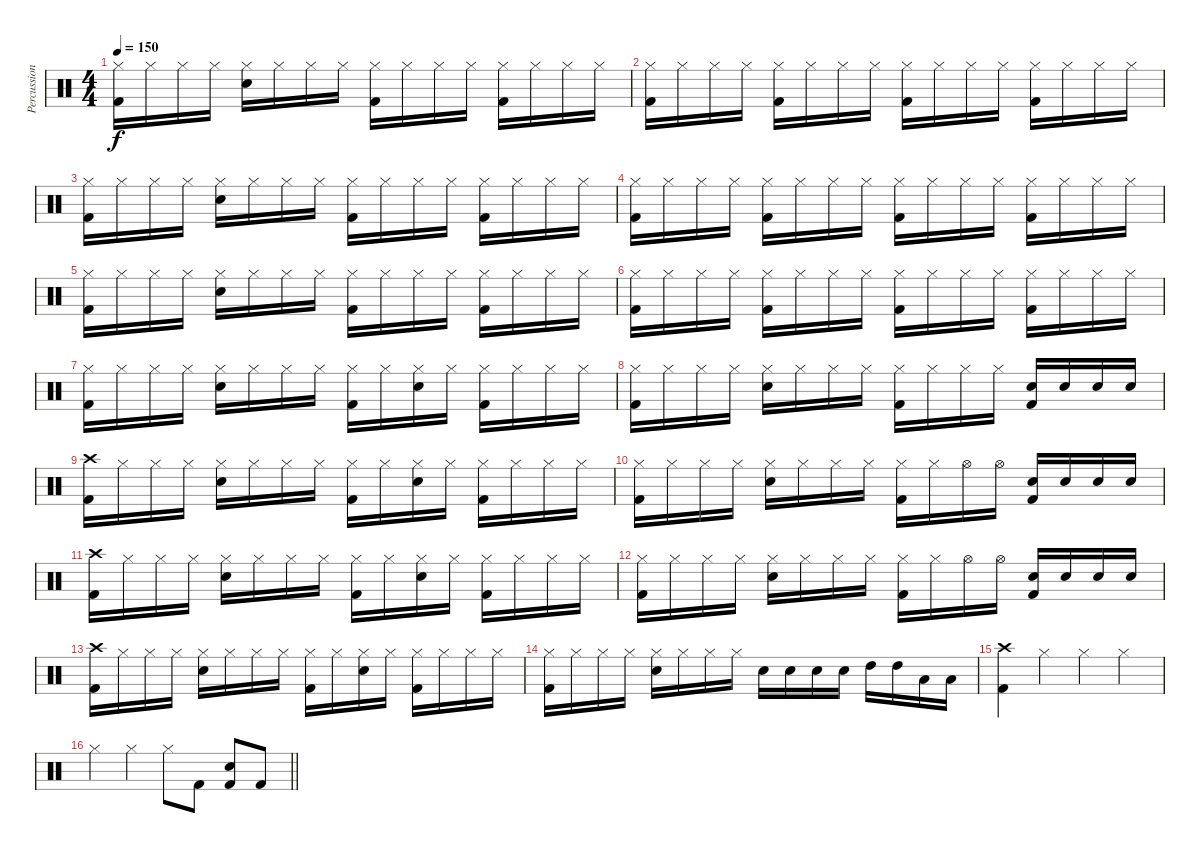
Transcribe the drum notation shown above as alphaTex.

\track ("Percussion" "Percussion") {instrument percussion}
\staff {score}
\articulation defaults
\ts (4 4)
\tempo 150
\clef neutral
\ks c
("Hi-Hat (closed)" "Kick (hit) 2").16{dy f} "Hi-Hat (closed)".16 "Hi-Hat (closed)".16 "Hi-Hat (closed)".16 ("Hi-Hat (closed)" "Snare (hit) 2").16 "Hi-Hat (closed)".16 "Hi-Hat (closed)".16 "Hi-Hat (closed)".16 ("Hi-Hat (closed)" "Kick (hit) 2").16 "Hi-Hat (closed)".16 "Hi-Hat (closed)".16 "Hi-Hat (closed)".16 ("Hi-Hat (closed)" "Kick (hit) 2").16 "Hi-Hat (closed)".16 "Hi-Hat (closed)".16 "Hi-Hat (closed)".16 |
("Hi-Hat (closed)" "Kick (hit) 2").16 "Hi-Hat (closed)".16 "Hi-Hat (closed)".16 "Hi-Hat (closed)".16 ("Hi-Hat (closed)" "Kick (hit) 2").16 "Hi-Hat (closed)".16 "Hi-Hat (closed)".16 "Hi-Hat (closed)".16 ("Hi-Hat (closed)" "Kick (hit) 2").16 "Hi-Hat (closed)".16 "Hi-Hat (closed)".16 "Hi-Hat (closed)".16 ("Hi-Hat (closed)" "Kick (hit) 2").16 "Hi-Hat (closed)".16 "Hi-Hat (closed)".16 "Hi-Hat (closed)".16 |
("Hi-Hat (closed)" "Kick (hit) 2").16 "Hi-Hat (closed)".16 "Hi-Hat (closed)".16 "Hi-Hat (closed)".16 ("Hi-Hat (closed)" "Snare (hit) 2").16 "Hi-Hat (closed)".16 "Hi-Hat (closed)".16 "Hi-Hat (closed)".16 ("Hi-Hat (closed)" "Kick (hit) 2").16 "Hi-Hat (closed)".16 "Hi-Hat (closed)".16 "Hi-Hat (closed)".16 ("Hi-Hat (closed)" "Kick (hit) 2").16 "Hi-Hat (closed)".16 "Hi-Hat (closed)".16 "Hi-Hat (closed)".16 |
("Hi-Hat (closed)" "Kick (hit) 2").16 "Hi-Hat (closed)".16 "Hi-Hat (closed)".16 "Hi-Hat (closed)".16 ("Hi-Hat (closed)" "Kick (hit) 2").16 "Hi-Hat (closed)".16 "Hi-Hat (closed)".16 "Hi-Hat (closed)".16 ("Hi-Hat (closed)" "Kick (hit) 2").16 "Hi-Hat (closed)".16 "Hi-Hat (closed)".16 "Hi-Hat (closed)".16 ("Hi-Hat (closed)" "Kick (hit) 2").16 "Hi-Hat (closed)".16 "Hi-Hat (closed)".16 "Hi-Hat (closed)".16 |
("Hi-Hat (closed)" "Kick (hit) 2").16 "Hi-Hat (closed)".16 "Hi-Hat (closed)".16 "Hi-Hat (closed)".16 ("Hi-Hat (closed)" "Snare (hit) 2").16 "Hi-Hat (closed)".16 "Hi-Hat (closed)".16 "Hi-Hat (closed)".16 ("Hi-Hat (closed)" "Kick (hit) 2").16 "Hi-Hat (closed)".16 "Hi-Hat (closed)".16 "Hi-Hat (closed)".16 ("Hi-Hat (closed)" "Kick (hit) 2").16 "Hi-Hat (closed)".16 "Hi-Hat (closed)".16 "Hi-Hat (closed)".16 |
("Hi-Hat (closed)" "Kick (hit) 2").16 "Hi-Hat (closed)".16 "Hi-Hat (closed)".16 "Hi-Hat (closed)".16 ("Hi-Hat (closed)" "Kick (hit) 2").16 "Hi-Hat (closed)".16 "Hi-Hat (closed)".16 "Hi-Hat (closed)".16 ("Hi-Hat (closed)" "Kick (hit) 2").16 "Hi-Hat (closed)".16 "Hi-Hat (closed)".16 "Hi-Hat (closed)".16 ("Hi-Hat (closed)" "Kick (hit) 2").16 "Hi-Hat (closed)".16 "Hi-Hat (closed)".16 "Hi-Hat (closed)".16 |
("Hi-Hat (closed)" "Kick (hit) 2").16 "Hi-Hat (closed)".16 "Hi-Hat (closed)".16 "Hi-Hat (closed)".16 ("Hi-Hat (closed)" "Snare (hit) 2").16 "Hi-Hat (closed)".16 "Hi-Hat (closed)".16 "Hi-Hat (closed)".16 ("Hi-Hat (closed)" "Kick (hit) 2").16 "Hi-Hat (closed)".16 ("Hi-Hat (closed)" "Snare (hit) 2").16 "Hi-Hat (closed)".16 ("Hi-Hat (closed)" "Kick (hit) 2").16 "Hi-Hat (closed)".16 "Hi-Hat (closed)".16 "Hi-Hat (closed)".16 |
("Hi-Hat (closed)" "Kick (hit) 2").16 "Hi-Hat (closed)".16 "Hi-Hat (closed)".16 "Hi-Hat (closed)".16 ("Hi-Hat (closed)" "Snare (hit) 2").16 "Hi-Hat (closed)".16 "Hi-Hat (closed)".16 "Hi-Hat (closed)".16 ("Hi-Hat (closed)" "Kick (hit) 2").16 "Hi-Hat (closed)".16 "Hi-Hat (closed)".16 "Hi-Hat (closed)".16 ("Snare (hit) 2" "Kick (hit) 2").16 "Snare (hit) 2".16 "Snare (hit) 2".16 "Snare (hit) 2".16 |
("Crash high (hit)" "Kick (hit) 2").16 "Hi-Hat (closed)".16 "Hi-Hat (closed)".16 "Hi-Hat (closed)".16 ("Hi-Hat (closed)" "Snare (hit) 2").16 "Hi-Hat (closed)".16 "Hi-Hat (closed)".16 "Hi-Hat (closed)".16 ("Hi-Hat (closed)" "Kick (hit) 2").16 "Hi-Hat (closed)".16 ("Hi-Hat (closed)" "Snare (hit) 2").16 "Hi-Hat (closed)".16 ("Hi-Hat (closed)" "Kick (hit) 2").16 "Hi-Hat (closed)".16 "Hi-Hat (closed)".16 "Hi-Hat (closed)".16 |
("Hi-Hat (closed)" "Kick (hit) 2").16 "Hi-Hat (closed)".16 "Hi-Hat (closed)".16 "Hi-Hat (closed)".16 ("Hi-Hat (closed)" "Snare (hit) 2").16 "Hi-Hat (closed)".16 "Hi-Hat (closed)".16 "Hi-Hat (closed)".16 ("Hi-Hat (closed)" "Kick (hit) 2").16 "Hi-Hat (closed)".16 "Hi-Hat (open)".16 "Hi-Hat (open)".16 ("Snare (hit) 2" "Kick (hit) 2").16 "Snare (hit) 2".16 "Snare (hit) 2".16 "Snare (hit) 2".16 |
("Crash high (hit)" "Kick (hit) 2").16 "Hi-Hat (closed)".16 "Hi-Hat (closed)".16 "Hi-Hat (closed)".16 ("Hi-Hat (closed)" "Snare (hit) 2").16 "Hi-Hat (closed)".16 "Hi-Hat (closed)".16 "Hi-Hat (closed)".16 ("Hi-Hat (closed)" "Kick (hit) 2").16 "Hi-Hat (closed)".16 ("Hi-Hat (closed)" "Snare (hit) 2").16 "Hi-Hat (closed)".16 ("Hi-Hat (closed)" "Kick (hit) 2").16 "Hi-Hat (closed)".16 "Hi-Hat (closed)".16 "Hi-Hat (closed)".16 |
("Hi-Hat (closed)" "Kick (hit) 2").16 "Hi-Hat (closed)".16 "Hi-Hat (closed)".16 "Hi-Hat (closed)".16 ("Hi-Hat (closed)" "Snare (hit) 2").16 "Hi-Hat (closed)".16 "Hi-Hat (closed)".16 "Hi-Hat (closed)".16 ("Hi-Hat (closed)" "Kick (hit) 2").16 "Hi-Hat (closed)".16 "Hi-Hat (open)".16 "Hi-Hat (open)".16 ("Snare (hit) 2" "Kick (hit) 2").16 "Snare (hit) 2".16 "Snare (hit) 2".16 "Snare (hit) 2".16 |
("Crash high (hit)" "Kick (hit) 2").16 "Hi-Hat (closed)".16 "Hi-Hat (closed)".16 "Hi-Hat (closed)".16 ("Hi-Hat (closed)" "Snare (hit) 2").16 "Hi-Hat (closed)".16 "Hi-Hat (closed)".16 "Hi-Hat (closed)".16 ("Hi-Hat (closed)" "Kick (hit) 2").16 "Hi-Hat (closed)".16 ("Hi-Hat (closed)" "Snare (hit) 2").16 "Hi-Hat (closed)".16 ("Hi-Hat (closed)" "Kick (hit) 2").16 "Hi-Hat (closed)".16 "Hi-Hat (closed)".16 "Hi-Hat (closed)".16 |
("Hi-Hat (closed)" "Kick (hit) 2").16 "Hi-Hat (closed)".16 "Hi-Hat (closed)".16 "Hi-Hat (closed)".16 ("Hi-Hat (closed)" "Snare (hit) 2").16 "Hi-Hat (closed)".16 "Hi-Hat (closed)".16 "Hi-Hat (closed)".16 "Snare (hit) 2".16 "Snare (hit) 2".16 "Snare (hit) 2".16 "Snare (hit) 2".16 "High Tom (hit)".16 "High Tom (hit)".16 "Low Floor Tom (hit)".16 "Low Floor Tom (hit)".16 |
("Crash high (hit)" "Kick (hit) 2").4 "Hi-Hat (closed)".4 "Hi-Hat (closed)".4 "Hi-Hat (closed)".4 |
\barLineRight lightlight "Hi-Hat (closed)".4 "Hi-Hat (closed)".4 "Hi-Hat (closed)".8 "Kick (hit) 2".8
("Kick (hit) 2" "Snare (hit) 2").8{bu 240} "Kick (hit) 2".8
